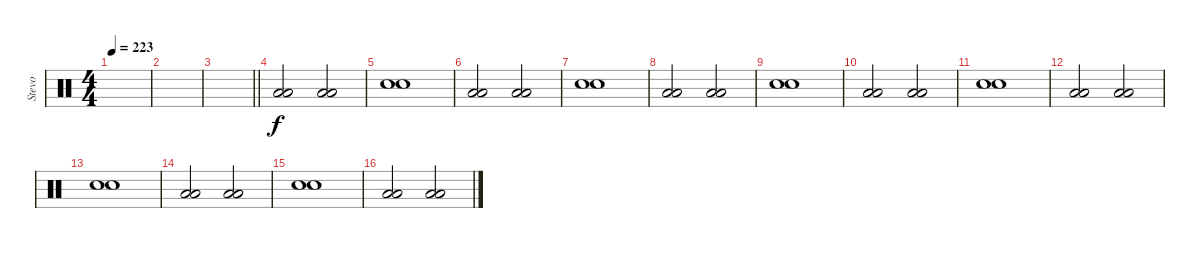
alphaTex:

\track ("Stevo" "Stevo") {instrument percussion}
\staff {score}
\articulation defaults
\ts (4 4)
\tempo 223
\clef neutral
\ks c
|
|
\barLineRight lightlight
|
("Low Floor Tom (hit)" "Low Floor Tom (hit)").2 ("Low Floor Tom (hit)" "Low Floor Tom (hit)").2 |
("Electric Snare (hit)" "Electric Snare (hit)").1 |
("Low Floor Tom (hit)" "Low Floor Tom (hit)").2 ("Low Floor Tom (hit)" "Low Floor Tom (hit)").2 |
("Electric Snare (hit)" "Electric Snare (hit)").1 |
("Low Floor Tom (hit)" "Low Floor Tom (hit)").2 ("Low Floor Tom (hit)" "Low Floor Tom (hit)").2 |
("Electric Snare (hit)" "Electric Snare (hit)").1 |
("Low Floor Tom (hit)" "Low Floor Tom (hit)").2 ("Low Floor Tom (hit)" "Low Floor Tom (hit)").2 |
("Electric Snare (hit)" "Electric Snare (hit)").1 |
("Low Floor Tom (hit)" "Low Floor Tom (hit)").2 ("Low Floor Tom (hit)" "Low Floor Tom (hit)").2 |
("Electric Snare (hit)" "Electric Snare (hit)").1 |
("Low Floor Tom (hit)" "Low Floor Tom (hit)").2 ("Low Floor Tom (hit)" "Low Floor Tom (hit)").2 |
("Electric Snare (hit)" "Electric Snare (hit)").1 |
("Low Floor Tom (hit)" "Low Floor Tom (hit)").2 ("Low Floor Tom (hit)" "Low Floor Tom (hit)").2
